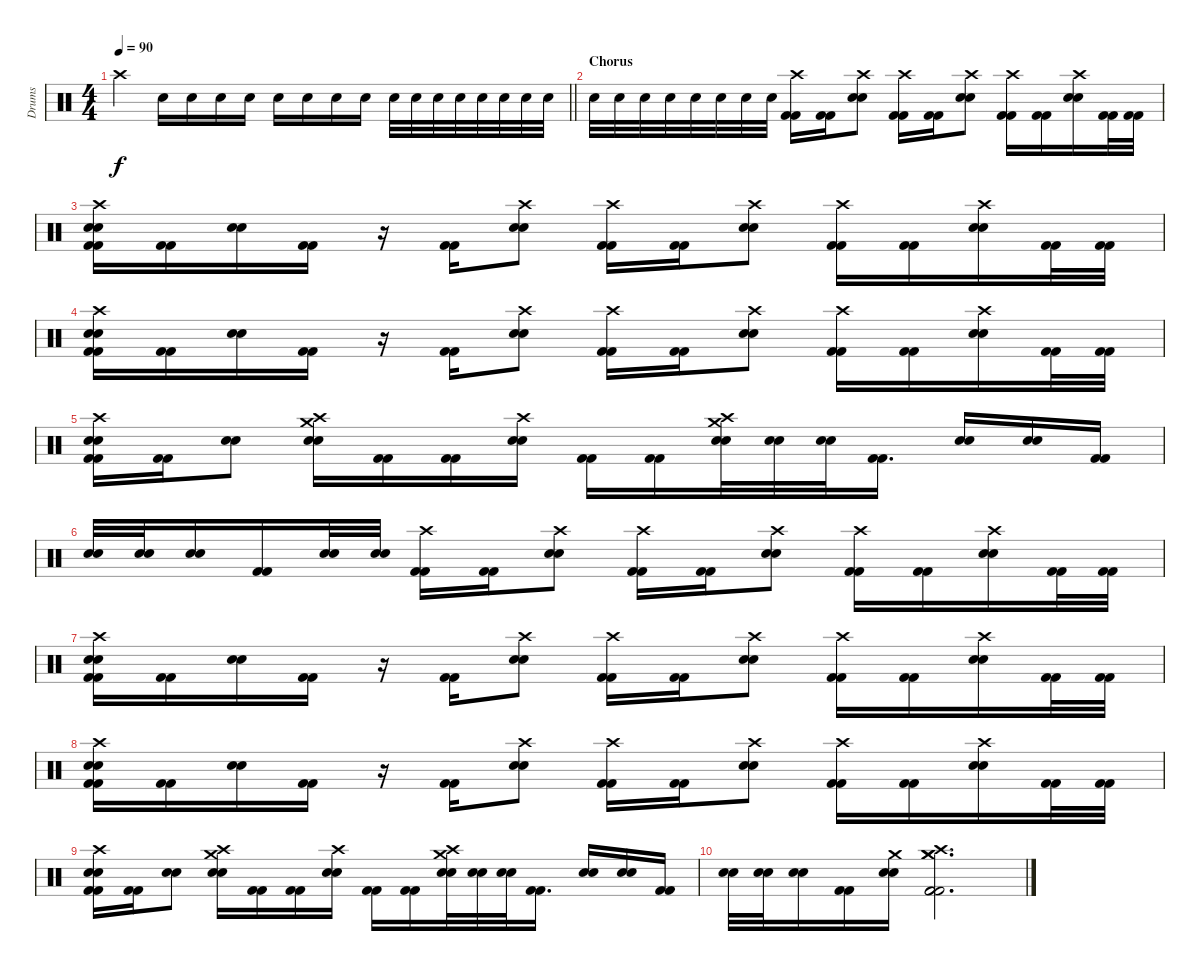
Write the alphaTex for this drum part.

\track ("Drums" "Drums") {instrument percussion}
\staff {score}
\articulation defaults
\ts (4 4)
\tempo 90
\clef neutral
\barLineRight lightlight
\ks c "Crash high (hit)".4{dy f} "Electric Snare (hit)".16{volume 3} "Electric Snare (hit)".16{volume 16} "Electric Snare (hit)".16 "Electric Snare (hit)".16 "Electric Snare (hit)".16 "Electric Snare (hit)".16 "Electric Snare (hit)".16 "Electric Snare (hit)".16 "Electric Snare (hit)".32 "Electric Snare (hit)".32 "Electric Snare (hit)".32 "Electric Snare (hit)".32 "Electric Snare (hit)".32 "Electric Snare (hit)".32 "Electric Snare (hit)".32 "Electric Snare (hit)".32
|
\section ("" "Chorus")
"Electric Snare (hit)".32 "Electric Snare (hit)".32 "Electric Snare (hit)".32 "Electric Snare (hit)".32 "Electric Snare (hit)".32 "Electric Snare (hit)".32 "Electric Snare (hit)".32 "Electric Snare (hit)".32 ("Crash high (hit)" "Kick (hit) 2" "Kick (hit) 2").16 ("Kick (hit) 2" "Kick (hit) 2").16 ("Crash high (hit)" "Electric Snare (hit)" "Electric Snare (hit)").8 ("Crash high (hit)" "Kick (hit) 2" "Kick (hit) 2").16 ("Kick (hit) 2" "Kick (hit) 2").16 ("Crash high (hit)" "Electric Snare (hit)" "Electric Snare (hit)").8 ("Crash high (hit)" "Kick (hit) 2" "Kick (hit) 2").16 ("Kick (hit) 2" "Kick (hit) 2").16 ("Crash high (hit)" "Electric Snare (hit)" "Electric Snare (hit)").16 ("Kick (hit) 2" "Kick (hit) 2").32 ("Kick (hit) 2" "Kick (hit) 2").32 |
("Crash high (hit)" "Electric Snare (hit)" "Electric Snare (hit)" "Kick (hit) 2" "Kick (hit) 2").16 ("Kick (hit) 2" "Kick (hit) 2").16 ("Electric Snare (hit)" "Electric Snare (hit)").16 ("Kick (hit) 2" "Kick (hit) 2").16 r.16 ("Kick (hit) 2" "Kick (hit) 2").16 ("Crash high (hit)" "Electric Snare (hit)" "Electric Snare (hit)").8 ("Crash high (hit)" "Kick (hit) 2" "Kick (hit) 2").16 ("Kick (hit) 2" "Kick (hit) 2").16 ("Crash high (hit)" "Electric Snare (hit)" "Electric Snare (hit)").8 ("Crash high (hit)" "Kick (hit) 2" "Kick (hit) 2").16 ("Kick (hit) 2" "Kick (hit) 2").16 ("Crash high (hit)" "Electric Snare (hit)" "Electric Snare (hit)").16 ("Kick (hit) 2" "Kick (hit) 2").32 ("Kick (hit) 2" "Kick (hit) 2").32 |
("Crash high (hit)" "Electric Snare (hit)" "Electric Snare (hit)" "Kick (hit) 2" "Kick (hit) 2").16 ("Kick (hit) 2" "Kick (hit) 2").16 ("Electric Snare (hit)" "Electric Snare (hit)").16 ("Kick (hit) 2" "Kick (hit) 2").16 r.16 ("Kick (hit) 2" "Kick (hit) 2").16 ("Crash high (hit)" "Electric Snare (hit)" "Electric Snare (hit)").8 ("Crash high (hit)" "Kick (hit) 2" "Kick (hit) 2").16 ("Kick (hit) 2" "Kick (hit) 2").16 ("Crash high (hit)" "Electric Snare (hit)" "Electric Snare (hit)").8 ("Crash high (hit)" "Kick (hit) 2" "Kick (hit) 2").16 ("Kick (hit) 2" "Kick (hit) 2").16 ("Crash high (hit)" "Electric Snare (hit)" "Electric Snare (hit)").16 ("Kick (hit) 2" "Kick (hit) 2").32 ("Kick (hit) 2" "Kick (hit) 2").32 |
("Crash high (hit)" "Electric Snare (hit)" "Electric Snare (hit)" "Kick (hit) 2" "Kick (hit) 2").16 ("Kick (hit) 2" "Kick (hit) 2").16 ("Electric Snare (hit)" "Electric Snare (hit)").8 ("Crash medium (hit)" "Crash high (hit)" "Electric Snare (hit)" "Electric Snare (hit)").16 ("Kick (hit) 2" "Kick (hit) 2").16 ("Kick (hit) 2" "Kick (hit) 2").16 ("Crash high (hit)" "Electric Snare (hit)" "Electric Snare (hit)").16 ("Kick (hit) 2" "Kick (hit) 2").16 ("Kick (hit) 2" "Kick (hit) 2").16 ("Crash medium (hit)" "Crash high (hit)" "Electric Snare (hit)" "Electric Snare (hit)").32 ("Electric Snare (hit)" "Electric Snare (hit)").32 ("Electric Snare (hit)" "Electric Snare (hit)").32 ("Kick (hit) 2" "Kick (hit) 2").16{d} ("Electric Snare (hit)" "Electric Snare (hit)").16 ("Electric Snare (hit)" "Electric Snare (hit)").16 ("Kick (hit) 2" "Kick (hit) 2").16 |
("Electric Snare (hit)" "Electric Snare (hit)").32 ("Electric Snare (hit)" "Electric Snare (hit)").32 ("Electric Snare (hit)" "Electric Snare (hit)").16 ("Kick (hit) 2" "Kick (hit) 2").16 ("Electric Snare (hit)" "Electric Snare (hit)").32 ("Electric Snare (hit)" "Electric Snare (hit)").32 ("Crash high (hit)" "Kick (hit) 2" "Kick (hit) 2").16 ("Kick (hit) 2" "Kick (hit) 2").16 ("Crash high (hit)" "Electric Snare (hit)" "Electric Snare (hit)").8 ("Crash high (hit)" "Kick (hit) 2" "Kick (hit) 2").16 ("Kick (hit) 2" "Kick (hit) 2").16 ("Crash high (hit)" "Electric Snare (hit)" "Electric Snare (hit)").8 ("Crash high (hit)" "Kick (hit) 2" "Kick (hit) 2").16 ("Kick (hit) 2" "Kick (hit) 2").16 ("Crash high (hit)" "Electric Snare (hit)" "Electric Snare (hit)").16 ("Kick (hit) 2" "Kick (hit) 2").32 ("Kick (hit) 2" "Kick (hit) 2").32 |
("Crash high (hit)" "Electric Snare (hit)" "Electric Snare (hit)" "Kick (hit) 2" "Kick (hit) 2").16 ("Kick (hit) 2" "Kick (hit) 2").16 ("Electric Snare (hit)" "Electric Snare (hit)").16 ("Kick (hit) 2" "Kick (hit) 2").16 r.16 ("Kick (hit) 2" "Kick (hit) 2").16 ("Crash high (hit)" "Electric Snare (hit)" "Electric Snare (hit)").8 ("Crash high (hit)" "Kick (hit) 2" "Kick (hit) 2").16 ("Kick (hit) 2" "Kick (hit) 2").16 ("Crash high (hit)" "Electric Snare (hit)" "Electric Snare (hit)").8 ("Crash high (hit)" "Kick (hit) 2" "Kick (hit) 2").16 ("Kick (hit) 2" "Kick (hit) 2").16 ("Crash high (hit)" "Electric Snare (hit)" "Electric Snare (hit)").16 ("Kick (hit) 2" "Kick (hit) 2").32 ("Kick (hit) 2" "Kick (hit) 2").32 |
("Crash high (hit)" "Electric Snare (hit)" "Electric Snare (hit)" "Kick (hit) 2" "Kick (hit) 2").16 ("Kick (hit) 2" "Kick (hit) 2").16 ("Electric Snare (hit)" "Electric Snare (hit)").16 ("Kick (hit) 2" "Kick (hit) 2").16 r.16 ("Kick (hit) 2" "Kick (hit) 2").16 ("Crash high (hit)" "Electric Snare (hit)" "Electric Snare (hit)").8 ("Crash high (hit)" "Kick (hit) 2" "Kick (hit) 2").16 ("Kick (hit) 2" "Kick (hit) 2").16 ("Crash high (hit)" "Electric Snare (hit)" "Electric Snare (hit)").8 ("Crash high (hit)" "Kick (hit) 2" "Kick (hit) 2").16 ("Kick (hit) 2" "Kick (hit) 2").16 ("Crash high (hit)" "Electric Snare (hit)" "Electric Snare (hit)").16 ("Kick (hit) 2" "Kick (hit) 2").32 ("Kick (hit) 2" "Kick (hit) 2").32 |
("Crash high (hit)" "Electric Snare (hit)" "Electric Snare (hit)" "Kick (hit) 2" "Kick (hit) 2").16 ("Kick (hit) 2" "Kick (hit) 2").16 ("Electric Snare (hit)" "Electric Snare (hit)").8 ("Crash medium (hit)" "Crash high (hit)" "Electric Snare (hit)" "Electric Snare (hit)").16 ("Kick (hit) 2" "Kick (hit) 2").16 ("Kick (hit) 2" "Kick (hit) 2").16 ("Crash high (hit)" "Electric Snare (hit)" "Electric Snare (hit)").16 ("Kick (hit) 2" "Kick (hit) 2").16 ("Kick (hit) 2" "Kick (hit) 2").16 ("Crash medium (hit)" "Crash high (hit)" "Electric Snare (hit)" "Electric Snare (hit)").32 ("Electric Snare (hit)" "Electric Snare (hit)").32 ("Electric Snare (hit)" "Electric Snare (hit)").32 ("Kick (hit) 2" "Kick (hit) 2").16{d} ("Electric Snare (hit)" "Electric Snare (hit)").16 ("Electric Snare (hit)" "Electric Snare (hit)").16 ("Kick (hit) 2" "Kick (hit) 2").16 |
("Electric Snare (hit)" "Electric Snare (hit)").32 ("Electric Snare (hit)" "Electric Snare (hit)").32 ("Electric Snare (hit)" "Electric Snare (hit)").16 ("Kick (hit) 2" "Kick (hit) 2").16 ("Crash medium (hit)" "Electric Snare (hit)" "Electric Snare (hit)").16 ("Crash medium (hit)" "Crash high (hit)" "Crash medium (hit)" "Kick (hit) 2" "Kick (hit) 2" "Kick (hit) 2").2{d}
